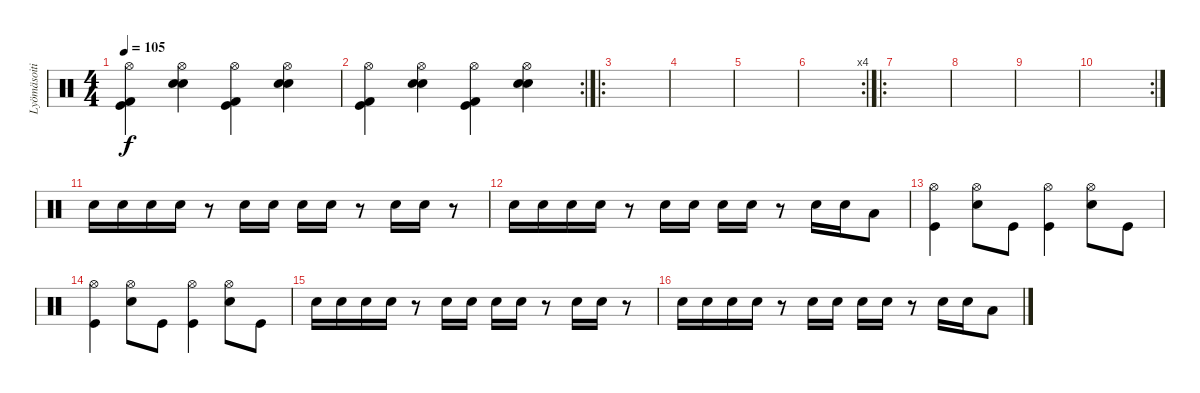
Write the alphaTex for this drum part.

\track ("Lyömäsoitin" "Lyömäsoiti") {instrument percussion}
\staff {score}
\articulation defaults
\ts (4 4)
\tempo 105
\clef neutral
\ks c
("Kick (hit)" "Kick (hit) 2" "Hi-Hat (open)").4{dy f} ("Electric Snare (hit)" "Snare (hit) 2" "Hi-Hat (open)").4 ("Kick (hit)" "Kick (hit) 2" "Hi-Hat (open)").4 ("Electric Snare (hit)" "Snare (hit) 2" "Hi-Hat (open)").4 |
\rc 2
("Kick (hit)" "Kick (hit) 2" "Hi-Hat (open)").4 ("Electric Snare (hit)" "Snare (hit) 2" "Hi-Hat (open)").4 ("Kick (hit)" "Kick (hit) 2" "Hi-Hat (open)").4 ("Electric Snare (hit)" "Snare (hit) 2" "Hi-Hat (open)").4 |
\ro
|
|
|
\rc 4
|
\ro
|
|
|
\rc 2
|
"Electric Snare (hit)".16 "Electric Snare (hit)".16 "Electric Snare (hit)".16 "Electric Snare (hit)".16 r.8 "Electric Snare (hit)".16 "Electric Snare (hit)".16 "Electric Snare (hit)".16 "Electric Snare (hit)".16 r.8 "Electric Snare (hit)".16 "Electric Snare (hit)".16 r.8 |
"Electric Snare (hit)".16 "Electric Snare (hit)".16 "Electric Snare (hit)".16 "Electric Snare (hit)".16 r.8 "Electric Snare (hit)".16 "Electric Snare (hit)".16 "Electric Snare (hit)".16 "Electric Snare (hit)".16 r.8 "Electric Snare (hit)".16 "Electric Snare (hit)".16 "Low Floor Tom (hit)".8 |
("Kick (hit)" "Hi-Hat (open)").4 ("Electric Snare (hit)" "Hi-Hat (open)").8 "Kick (hit)".8 ("Kick (hit)" "Hi-Hat (open)").4 ("Electric Snare (hit)" "Hi-Hat (open)").8 "Kick (hit)".8 |
("Kick (hit)" "Hi-Hat (open)").4 ("Electric Snare (hit)" "Hi-Hat (open)").8 "Kick (hit)".8 ("Kick (hit)" "Hi-Hat (open)").4 ("Electric Snare (hit)" "Hi-Hat (open)").8 "Kick (hit)".8 |
"Electric Snare (hit)".16 "Electric Snare (hit)".16 "Electric Snare (hit)".16 "Electric Snare (hit)".16 r.8 "Electric Snare (hit)".16 "Electric Snare (hit)".16 "Electric Snare (hit)".16 "Electric Snare (hit)".16 r.8 "Electric Snare (hit)".16 "Electric Snare (hit)".16 r.8 |
"Electric Snare (hit)".16 "Electric Snare (hit)".16 "Electric Snare (hit)".16 "Electric Snare (hit)".16 r.8 "Electric Snare (hit)".16 "Electric Snare (hit)".16 "Electric Snare (hit)".16 "Electric Snare (hit)".16 r.8 "Electric Snare (hit)".16 "Electric Snare (hit)".16 "Low Floor Tom (hit)".8
